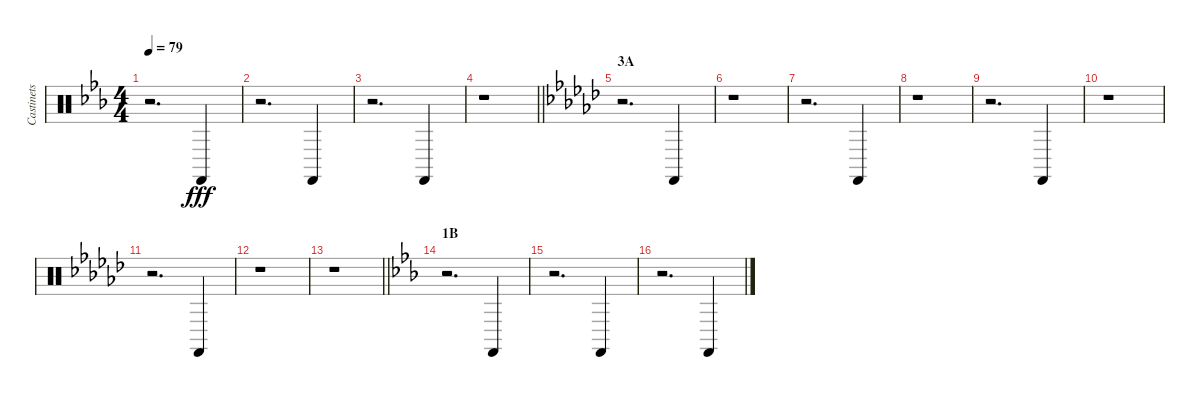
\track ("Castinets" "Castinets") {instrument percussion}
\staff {score}
\articulation defaults
\ts (4 4)
\tempo 79
\clef neutral
\ks eb
r.2{d dy fff} "Castanets (hit)".4 |
r.2{d} "Castanets (hit)".4 |
r.2{d} "Castanets (hit)".4 |
\barLineRight lightlight
r.1 |
\section ("" "3A")
\ks gb
r.2{d} "Castanets (hit)".4 |
r.1 |
r.2{d} "Castanets (hit)".4 |
r.1 |
r.2{d} "Castanets (hit)".4 |
r.1 |
r.2{d} "Castanets (hit)".4 |
r.1 |
\barLineRight lightlight
r.1 |
\section ("" "1B")
\ks eb
r.2{d} "Castanets (hit)".4 |
r.2{d} "Castanets (hit)".4 |
r.2{d} "Castanets (hit)".4
